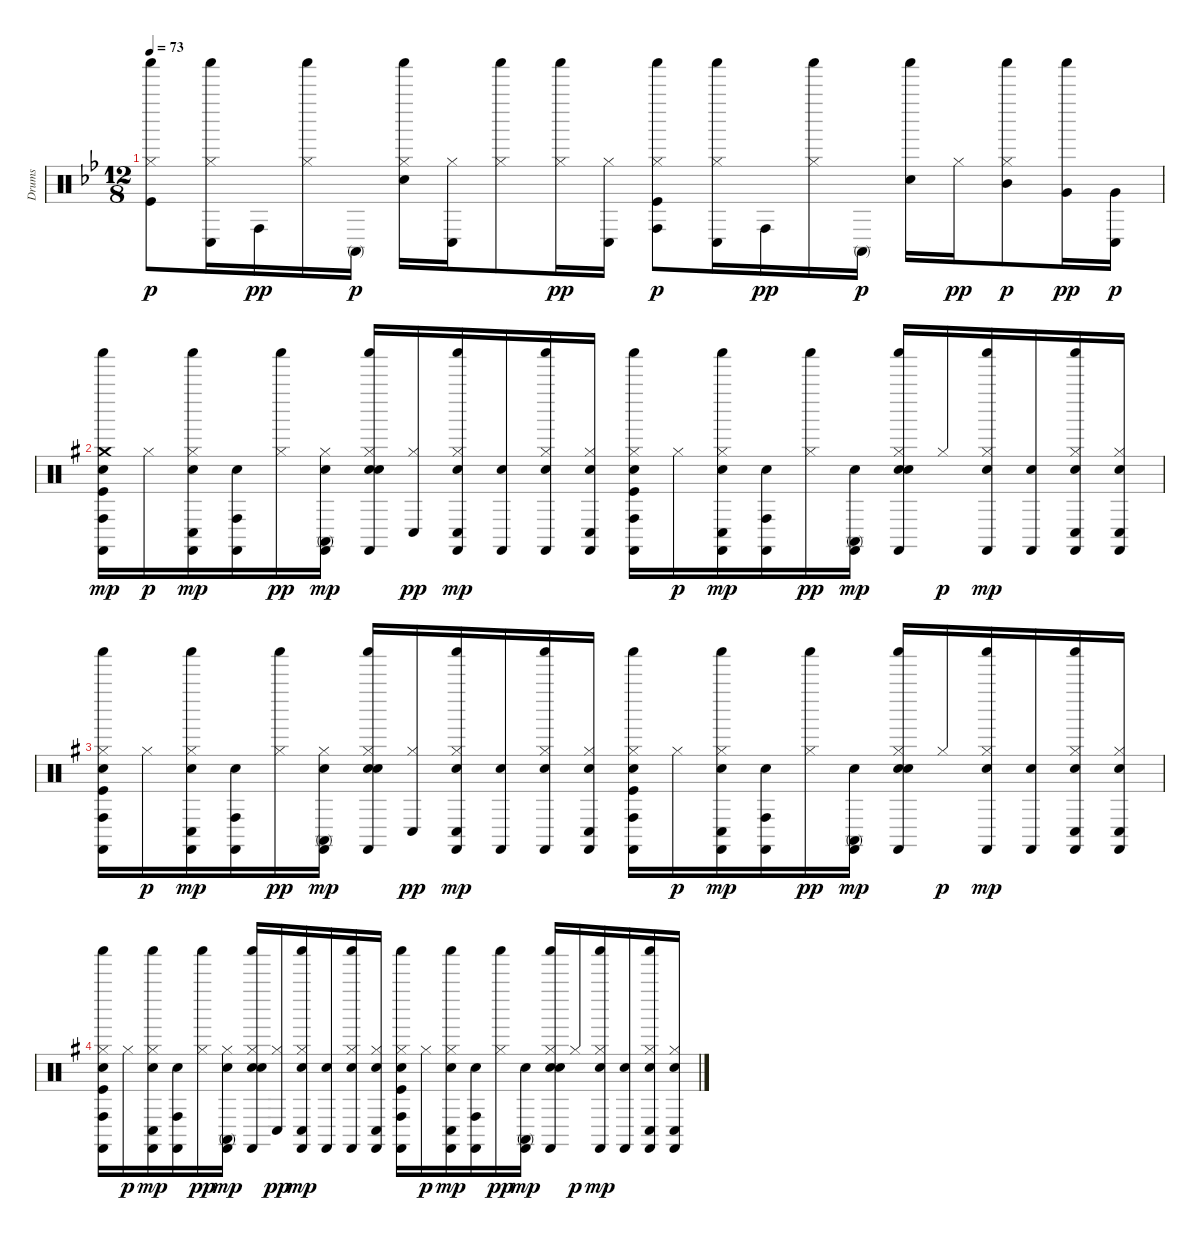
\track ("Drums" "Drums") {instrument percussion}
\staff {score}
\articulation defaults
\ts (12 8)
\tempo 73
\clef neutral
\ks bb
("Kick (hit)" "Hi-Hat (closed)" "Shaker (hit)").8{dy p} ("Hi-Hat (closed)" "Conga low (hit)" "Shaker (hit)").16 "Conga high (hit)".16{dy pp} ("Hi-Hat (closed)" "Shaker (hit)").16 "Conga high (mute)".16{dy p} ("Electric Snare (hit)" "Hi-Hat (closed)" "Shaker (hit)").16 ("Hi-Hat (closed)" "Conga low (hit)").16 ("Hi-Hat (closed)" "Shaker (hit)").8 ("Hi-Hat (closed)" "Shaker (hit)").16{dy pp} ("Hi-Hat (closed)" "Conga low (hit)").16 ("Kick (hit)" "Hi-Hat (closed)" "Conga high (hit)" "Shaker (hit)").8{dy p} ("Hi-Hat (closed)" "Conga low (hit)" "Shaker (hit)").16 "Conga high (hit)".16{dy pp} ("Hi-Hat (closed)" "Shaker (hit)").16 "Conga high (mute)".16{dy p} ("Electric Snare (hit)" "Shaker (hit)").16 "Hi-Hat (closed)".16{dy pp} ("Hi-Hat (closed)" "Mid Tom (hit)" "Shaker (hit)").8{dy p} ("Very Low Tom (hit)" "Shaker (hit)").16{dy pp} ("Very Low Tom (hit)" "Conga low (hit)").16{dy p} |
\ks g
("Kick (hit)" "Hand Clap (hit)" "Crash medium (hit)" "Conga high (hit)" "Shaker (hit)" "Castanets (hit)").16{dy mp} "Hi-Hat (closed)".16{dy p} ("Hand Clap (hit)" "Hi-Hat (closed)" "Conga low (hit)" "Shaker (hit)" "Castanets (hit)").16{dy mp} ("Hand Clap (hit)" "Conga high (hit)" "Castanets (hit)").16 ("Hi-Hat (closed)" "Shaker (hit)").16{dy pp} ("Hand Clap (hit)" "Hi-Hat (closed)" "Conga high (mute)" "Castanets (hit)").16{dy mp} ("Hand Clap (hit)" "Electric Snare (hit)" "Hi-Hat (closed)" "Shaker (hit)" "Castanets (hit)").16 ("Hi-Hat (closed)" "Conga low (hit)").16{dy pp} ("Hand Clap (hit)" "Hi-Hat (closed)" "Conga low (hit)" "Shaker (hit)" "Castanets (hit)").16{dy mp} ("Hand Clap (hit)" "Castanets (hit)").16 ("Hand Clap (hit)" "Hi-Hat (closed)" "Shaker (hit)" "Castanets (hit)").16 ("Hand Clap (hit)" "Hi-Hat (closed)" "Conga low (hit)" "Castanets (hit)").16 ("Kick (hit)" "Hand Clap (hit)" "Hi-Hat (closed)" "Conga high (hit)" "Shaker (hit)" "Castanets (hit)").16 "Hi-Hat (closed)".16{dy p} ("Hand Clap (hit)" "Hi-Hat (closed)" "Conga low (hit)" "Shaker (hit)" "Castanets (hit)").16{dy mp} ("Hand Clap (hit)" "Conga high (hit)" "Castanets (hit)").16 ("Hi-Hat (closed)" "Shaker (hit)").16{dy pp} ("Hand Clap (hit)" "Conga high (mute)" "Castanets (hit)").16{dy mp} ("Hand Clap (hit)" "Electric Snare (hit)" "Hi-Hat (closed)" "Shaker (hit)" "Castanets (hit)").16 "Hi-Hat (closed)".16{dy p} ("Hand Clap (hit)" "Hi-Hat (closed)" "Shaker (hit)" "Castanets (hit)").16{dy mp} ("Hand Clap (hit)" "Castanets (hit)").16 ("Hand Clap (hit)" "Hi-Hat (closed)" "Conga low (hit)" "Shaker (hit)" "Castanets (hit)").16 ("Hand Clap (hit)" "Hi-Hat (closed)" "Conga low (hit)" "Castanets (hit)").16 |
("Kick (hit)" "Hand Clap (hit)" "Hi-Hat (closed)" "Conga high (hit)" "Shaker (hit)" "Castanets (hit)").16 "Hi-Hat (closed)".16{dy p} ("Hand Clap (hit)" "Hi-Hat (closed)" "Conga low (hit)" "Shaker (hit)" "Castanets (hit)").16{dy mp} ("Hand Clap (hit)" "Conga high (hit)" "Castanets (hit)").16 ("Hi-Hat (closed)" "Shaker (hit)").16{dy pp} ("Hand Clap (hit)" "Hi-Hat (closed)" "Conga high (mute)" "Castanets (hit)").16{dy mp} ("Hand Clap (hit)" "Electric Snare (hit)" "Hi-Hat (closed)" "Shaker (hit)" "Castanets (hit)").16 ("Hi-Hat (closed)" "Conga low (hit)").16{dy pp} ("Hand Clap (hit)" "Hi-Hat (closed)" "Conga low (hit)" "Shaker (hit)" "Castanets (hit)").16{dy mp} ("Hand Clap (hit)" "Castanets (hit)").16 ("Hand Clap (hit)" "Hi-Hat (closed)" "Shaker (hit)" "Castanets (hit)").16 ("Hand Clap (hit)" "Hi-Hat (closed)" "Conga low (hit)" "Castanets (hit)").16 ("Kick (hit)" "Hand Clap (hit)" "Hi-Hat (closed)" "Conga high (hit)" "Shaker (hit)" "Castanets (hit)").16 "Hi-Hat (closed)".16{dy p} ("Hand Clap (hit)" "Hi-Hat (closed)" "Conga low (hit)" "Shaker (hit)" "Castanets (hit)").16{dy mp} ("Hand Clap (hit)" "Conga high (hit)" "Castanets (hit)").16 ("Hi-Hat (closed)" "Shaker (hit)").16{dy pp} ("Hand Clap (hit)" "Conga high (mute)" "Castanets (hit)").16{dy mp} ("Hand Clap (hit)" "Electric Snare (hit)" "Hi-Hat (closed)" "Shaker (hit)" "Castanets (hit)").16 "Hi-Hat (closed)".16{dy p} ("Hand Clap (hit)" "Hi-Hat (closed)" "Shaker (hit)" "Castanets (hit)").16{dy mp} ("Hand Clap (hit)" "Castanets (hit)").16 ("Hand Clap (hit)" "Hi-Hat (closed)" "Conga low (hit)" "Shaker (hit)" "Castanets (hit)").16 ("Hand Clap (hit)" "Hi-Hat (closed)" "Conga low (hit)" "Castanets (hit)").16 |
("Kick (hit)" "Hand Clap (hit)" "Hi-Hat (closed)" "Conga high (hit)" "Shaker (hit)" "Castanets (hit)").16 "Hi-Hat (closed)".16{dy p} ("Hand Clap (hit)" "Hi-Hat (closed)" "Conga low (hit)" "Shaker (hit)" "Castanets (hit)").16{dy mp} ("Hand Clap (hit)" "Conga high (hit)" "Castanets (hit)").16 ("Hi-Hat (closed)" "Shaker (hit)").16{dy pp} ("Hand Clap (hit)" "Hi-Hat (closed)" "Conga high (mute)" "Castanets (hit)").16{dy mp} ("Hand Clap (hit)" "Electric Snare (hit)" "Hi-Hat (closed)" "Shaker (hit)" "Castanets (hit)").16 ("Hi-Hat (closed)" "Conga low (hit)").16{dy pp} ("Hand Clap (hit)" "Hi-Hat (closed)" "Conga low (hit)" "Shaker (hit)" "Castanets (hit)").16{dy mp} ("Hand Clap (hit)" "Castanets (hit)").16 ("Hand Clap (hit)" "Hi-Hat (closed)" "Shaker (hit)" "Castanets (hit)").16 ("Hand Clap (hit)" "Hi-Hat (closed)" "Conga low (hit)" "Castanets (hit)").16 ("Kick (hit)" "Hand Clap (hit)" "Hi-Hat (closed)" "Conga high (hit)" "Shaker (hit)" "Castanets (hit)").16 "Hi-Hat (closed)".16{dy p} ("Hand Clap (hit)" "Hi-Hat (closed)" "Conga low (hit)" "Shaker (hit)" "Castanets (hit)").16{dy mp} ("Hand Clap (hit)" "Conga high (hit)" "Castanets (hit)").16 ("Hi-Hat (closed)" "Shaker (hit)").16{dy pp} ("Hand Clap (hit)" "Conga high (mute)" "Castanets (hit)").16{dy mp} ("Hand Clap (hit)" "Electric Snare (hit)" "Hi-Hat (closed)" "Shaker (hit)" "Castanets (hit)").16 "Hi-Hat (closed)".16{dy p} ("Hand Clap (hit)" "Hi-Hat (closed)" "Shaker (hit)" "Castanets (hit)").16{dy mp} ("Hand Clap (hit)" "Castanets (hit)").16 ("Hand Clap (hit)" "Hi-Hat (closed)" "Conga low (hit)" "Shaker (hit)" "Castanets (hit)").16 ("Hand Clap (hit)" "Hi-Hat (closed)" "Conga low (hit)" "Castanets (hit)").16
